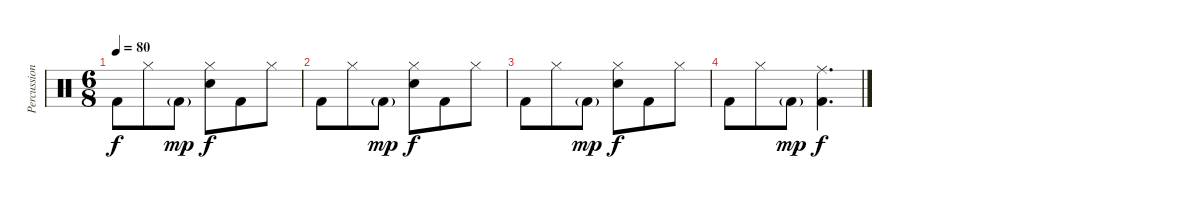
\track ("Percussion" "Percussion") {instrument percussion}
\staff {score}
\articulation defaults
\ts (6 8)
\tempo 80
\clef neutral
\ks c "Kick (hit) 2".8{dy f} "Hi-Hat (closed)".8 "Kick (hit) 2"{g}.8{dy mp}
("Hi-Hat (closed)" "Snare (hit) 2").8{dy f} "Kick (hit) 2".8 "Hi-Hat (closed)".8 |
"Kick (hit) 2".8 "Hi-Hat (closed)".8 "Kick (hit) 2"{g}.8{dy mp} ("Hi-Hat (closed)" "Snare (hit) 2").8{dy f} "Kick (hit) 2".8 "Hi-Hat (closed)".8 |
"Kick (hit) 2".8 "Hi-Hat (closed)".8 "Kick (hit) 2"{g}.8{dy mp} ("Hi-Hat (closed)" "Snare (hit) 2").8{dy f} "Kick (hit) 2".8 "Hi-Hat (closed)".8 |
"Kick (hit) 2".8 "Hi-Hat (closed)".8 "Kick (hit) 2"{g}.8{dy mp} ("Ride (middle)" "Kick (hit) 2").4{d dy f}
